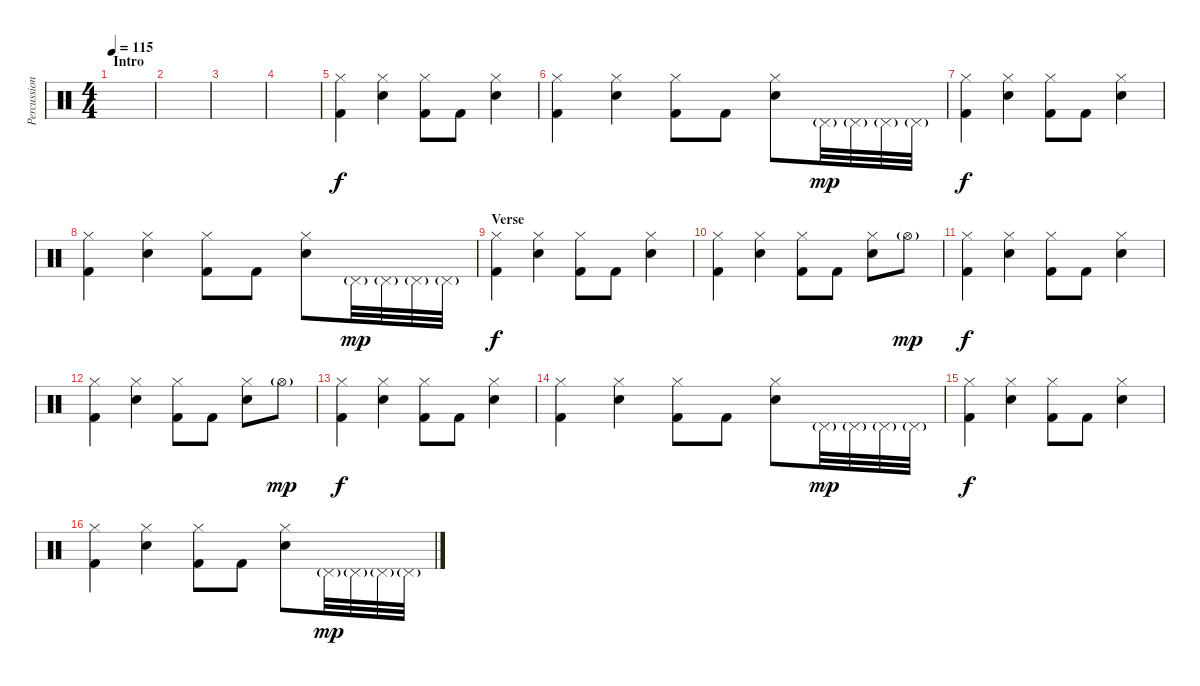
\track ("Percussion" "Percussion") {instrument percussion}
\staff {score}
\articulation defaults
\ts (4 4)
\section ("" "Intro")
\tempo 115
\clef neutral
\ks c
|
|
|
|
("Hi-Hat (closed)" "Kick (hit) 2").4 ("Hi-Hat (closed)" "Snare (hit) 2").4 ("Hi-Hat (closed)" "Kick (hit) 2").8 "Kick (hit) 2".8 ("Hi-Hat (closed)" "Snare (hit) 2").4 |
("Hi-Hat (closed)" "Kick (hit) 2").4 ("Hi-Hat (closed)" "Snare (hit) 2").4 ("Hi-Hat (closed)" "Kick (hit) 2").8 "Kick (hit) 2".8 ("Hi-Hat (closed)" "Snare (hit) 2").8 "Pedal Hi-Hat (hit)"{g}.32{dy mp} "Pedal Hi-Hat (hit)"{g}.32 "Pedal Hi-Hat (hit)"{g}.32 "Pedal Hi-Hat (hit)"{g}.32 |
("Hi-Hat (closed)" "Kick (hit) 2").4{dy f} ("Hi-Hat (closed)" "Snare (hit) 2").4 ("Hi-Hat (closed)" "Kick (hit) 2").8 "Kick (hit) 2".8 ("Hi-Hat (closed)" "Snare (hit) 2").4 |
("Hi-Hat (closed)" "Kick (hit) 2").4 ("Hi-Hat (closed)" "Snare (hit) 2").4 ("Hi-Hat (closed)" "Kick (hit) 2").8 "Kick (hit) 2".8 ("Hi-Hat (closed)" "Snare (hit) 2").8 "Pedal Hi-Hat (hit)"{g}.32{dy mp} "Pedal Hi-Hat (hit)"{g}.32 "Pedal Hi-Hat (hit)"{g}.32 "Pedal Hi-Hat (hit)"{g}.32 |
\section ("" "Verse")
("Hi-Hat (closed)" "Kick (hit) 2").4{dy f} ("Hi-Hat (closed)" "Snare (hit) 2").4 ("Hi-Hat (closed)" "Kick (hit) 2").8 "Kick (hit) 2".8 ("Hi-Hat (closed)" "Snare (hit) 2").4 |
("Hi-Hat (closed)" "Kick (hit) 2").4 ("Hi-Hat (closed)" "Snare (hit) 2").4 ("Hi-Hat (closed)" "Kick (hit) 2").8 "Kick (hit) 2".8 ("Hi-Hat (closed)" "Snare (hit) 2").8 "Hi-Hat (open)"{g}.8{dy mp} |
("Hi-Hat (closed)" "Kick (hit) 2").4{dy f} ("Hi-Hat (closed)" "Snare (hit) 2").4 ("Hi-Hat (closed)" "Kick (hit) 2").8 "Kick (hit) 2".8 ("Hi-Hat (closed)" "Snare (hit) 2").4 |
("Hi-Hat (closed)" "Kick (hit) 2").4 ("Hi-Hat (closed)" "Snare (hit) 2").4 ("Hi-Hat (closed)" "Kick (hit) 2").8 "Kick (hit) 2".8 ("Hi-Hat (closed)" "Snare (hit) 2").8 "Hi-Hat (open)"{g}.8{dy mp} |
("Hi-Hat (closed)" "Kick (hit) 2").4{dy f} ("Hi-Hat (closed)" "Snare (hit) 2").4 ("Hi-Hat (closed)" "Kick (hit) 2").8 "Kick (hit) 2".8 ("Hi-Hat (closed)" "Snare (hit) 2").4 |
("Hi-Hat (closed)" "Kick (hit) 2").4 ("Hi-Hat (closed)" "Snare (hit) 2").4 ("Hi-Hat (closed)" "Kick (hit) 2").8 "Kick (hit) 2".8 ("Hi-Hat (closed)" "Snare (hit) 2").8 "Pedal Hi-Hat (hit)"{g}.32{dy mp} "Pedal Hi-Hat (hit)"{g}.32 "Pedal Hi-Hat (hit)"{g}.32 "Pedal Hi-Hat (hit)"{g}.32 |
("Hi-Hat (closed)" "Kick (hit) 2").4{dy f} ("Hi-Hat (closed)" "Snare (hit) 2").4 ("Hi-Hat (closed)" "Kick (hit) 2").8 "Kick (hit) 2".8 ("Hi-Hat (closed)" "Snare (hit) 2").4 |
("Hi-Hat (closed)" "Kick (hit) 2").4 ("Hi-Hat (closed)" "Snare (hit) 2").4 ("Hi-Hat (closed)" "Kick (hit) 2").8 "Kick (hit) 2".8 ("Hi-Hat (closed)" "Snare (hit) 2").8 "Pedal Hi-Hat (hit)"{g}.32{dy mp} "Pedal Hi-Hat (hit)"{g}.32 "Pedal Hi-Hat (hit)"{g}.32 "Pedal Hi-Hat (hit)"{g}.32
